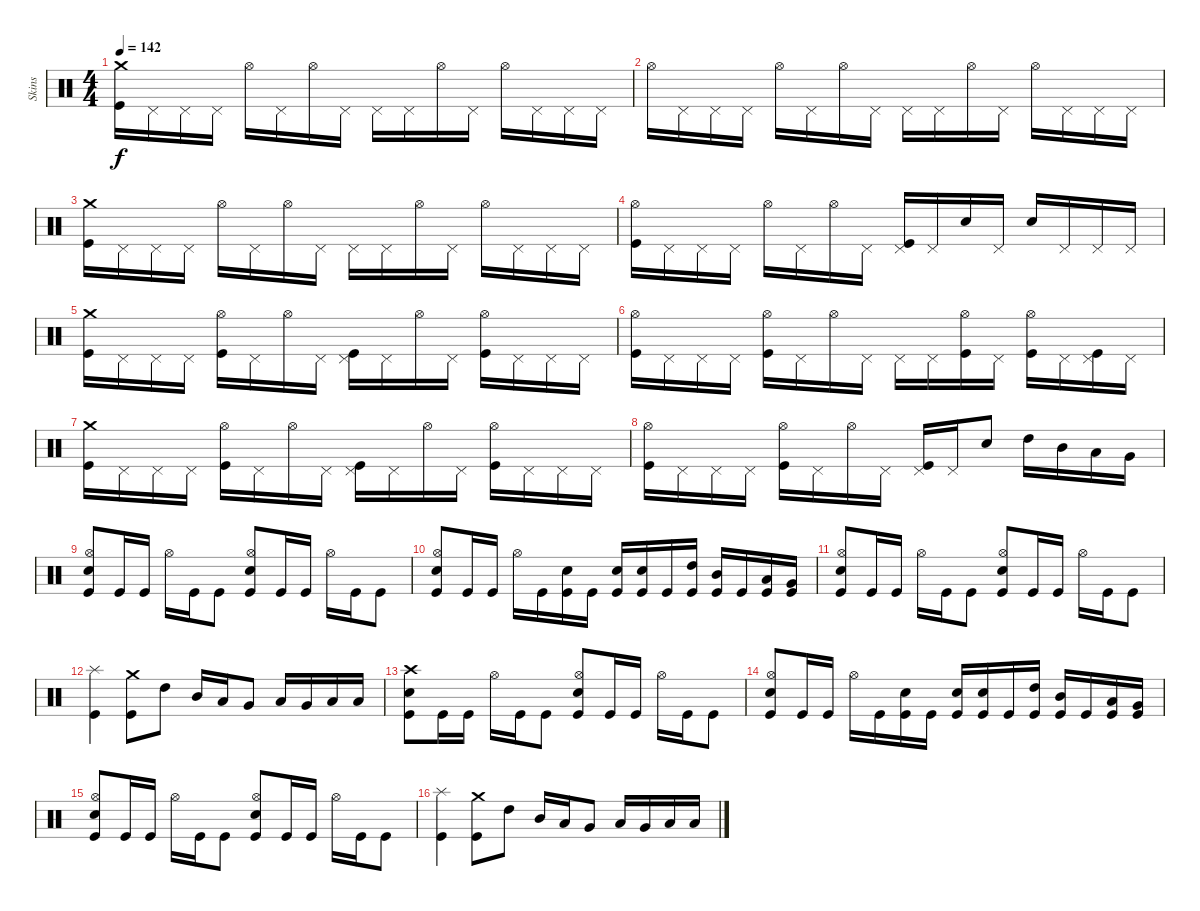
\track ("Skins" "Skins") {instrument percussion}
\staff {score}
\articulation defaults
\ts (4 4)
\tempo 142
\clef neutral
\ks c
("Crash medium (hit)" "Kick (hit)").16{dy f} "Pedal Hi-Hat (hit)".16 "Pedal Hi-Hat (hit)".16 "Pedal Hi-Hat (hit)".16 "Hi-Hat (open)".16 "Pedal Hi-Hat (hit)".16 "Hi-Hat (open)".16 "Pedal Hi-Hat (hit)".16 "Pedal Hi-Hat (hit)".16 "Pedal Hi-Hat (hit)".16 "Hi-Hat (open)".16 "Pedal Hi-Hat (hit)".16 "Hi-Hat (open)".16 "Pedal Hi-Hat (hit)".16 "Pedal Hi-Hat (hit)".16 "Pedal Hi-Hat (hit)".16 |
"Hi-Hat (open)".16 "Pedal Hi-Hat (hit)".16 "Pedal Hi-Hat (hit)".16 "Pedal Hi-Hat (hit)".16 "Hi-Hat (open)".16 "Pedal Hi-Hat (hit)".16 "Hi-Hat (open)".16 "Pedal Hi-Hat (hit)".16 "Pedal Hi-Hat (hit)".16 "Pedal Hi-Hat (hit)".16 "Hi-Hat (open)".16 "Pedal Hi-Hat (hit)".16 "Hi-Hat (open)".16 "Pedal Hi-Hat (hit)".16 "Pedal Hi-Hat (hit)".16 "Pedal Hi-Hat (hit)".16 |
("Crash medium (hit)" "Kick (hit)").16 "Pedal Hi-Hat (hit)".16 "Pedal Hi-Hat (hit)".16 "Pedal Hi-Hat (hit)".16 "Hi-Hat (open)".16 "Pedal Hi-Hat (hit)".16 "Hi-Hat (open)".16 "Pedal Hi-Hat (hit)".16 "Pedal Hi-Hat (hit)".16 "Pedal Hi-Hat (hit)".16 "Hi-Hat (open)".16 "Pedal Hi-Hat (hit)".16 "Hi-Hat (open)".16 "Pedal Hi-Hat (hit)".16 "Pedal Hi-Hat (hit)".16 "Pedal Hi-Hat (hit)".16 |
("Hi-Hat (open)" "Kick (hit)").16 "Pedal Hi-Hat (hit)".16 "Pedal Hi-Hat (hit)".16 "Pedal Hi-Hat (hit)".16 "Hi-Hat (open)".16 "Pedal Hi-Hat (hit)".16 "Hi-Hat (open)".16 "Pedal Hi-Hat (hit)".16 ("Pedal Hi-Hat (hit)" "Kick (hit)").16 "Pedal Hi-Hat (hit)".16 "Snare (hit) 2".16 "Pedal Hi-Hat (hit)".16 "Snare (hit) 2".16 "Pedal Hi-Hat (hit)".16 "Pedal Hi-Hat (hit)".16 "Pedal Hi-Hat (hit)".16 |
("Crash medium (hit)" "Kick (hit)").16 "Pedal Hi-Hat (hit)".16 "Pedal Hi-Hat (hit)".16 "Pedal Hi-Hat (hit)".16 ("Hi-Hat (open)" "Kick (hit)").16 "Pedal Hi-Hat (hit)".16 "Hi-Hat (open)".16 "Pedal Hi-Hat (hit)".16 ("Pedal Hi-Hat (hit)" "Kick (hit)").16 "Pedal Hi-Hat (hit)".16 "Hi-Hat (open)".16 "Pedal Hi-Hat (hit)".16 ("Hi-Hat (open)" "Kick (hit)").16 "Pedal Hi-Hat (hit)".16 "Pedal Hi-Hat (hit)".16 "Pedal Hi-Hat (hit)".16 |
("Hi-Hat (open)" "Kick (hit)").16 "Pedal Hi-Hat (hit)".16 "Pedal Hi-Hat (hit)".16 "Pedal Hi-Hat (hit)".16 ("Hi-Hat (open)" "Kick (hit)").16 "Pedal Hi-Hat (hit)".16 "Hi-Hat (open)".16 "Pedal Hi-Hat (hit)".16 "Pedal Hi-Hat (hit)".16 "Pedal Hi-Hat (hit)".16 ("Hi-Hat (open)" "Kick (hit)").16 "Pedal Hi-Hat (hit)".16 ("Hi-Hat (open)" "Kick (hit)").16 "Pedal Hi-Hat (hit)".16 ("Pedal Hi-Hat (hit)" "Kick (hit)").16 "Pedal Hi-Hat (hit)".16 |
("Crash medium (hit)" "Kick (hit)").16 "Pedal Hi-Hat (hit)".16 "Pedal Hi-Hat (hit)".16 "Pedal Hi-Hat (hit)".16 ("Hi-Hat (open)" "Kick (hit)").16 "Pedal Hi-Hat (hit)".16 "Hi-Hat (open)".16 "Pedal Hi-Hat (hit)".16 ("Pedal Hi-Hat (hit)" "Kick (hit)").16 "Pedal Hi-Hat (hit)".16 "Hi-Hat (open)".16 "Pedal Hi-Hat (hit)".16 ("Hi-Hat (open)" "Kick (hit)").16 "Pedal Hi-Hat (hit)".16 "Pedal Hi-Hat (hit)".16 "Pedal Hi-Hat (hit)".16 |
("Hi-Hat (open)" "Kick (hit)").16 "Pedal Hi-Hat (hit)".16 "Pedal Hi-Hat (hit)".16 "Pedal Hi-Hat (hit)".16 ("Hi-Hat (open)" "Kick (hit)").16 "Pedal Hi-Hat (hit)".16 "Hi-Hat (open)".16 "Pedal Hi-Hat (hit)".16 ("Pedal Hi-Hat (hit)" "Kick (hit)").16 "Pedal Hi-Hat (hit)".16 "Snare (hit) 2".8 "High Tom (hit)".16 "Mid Tom (hit)".16 "Low Tom (hit)".16 "Very Low Tom (hit)".16 |
("Hi-Hat (open)" "Electric Snare (hit)" "Kick (hit)").8 "Kick (hit)".16 "Kick (hit)".16 "Hi-Hat (open)".16 "Kick (hit)".16 "Kick (hit)".8 ("Hi-Hat (open)" "Snare (hit) 2" "Kick (hit)").8 "Kick (hit)".16 "Kick (hit)".16 "Hi-Hat (open)".16 "Kick (hit)".16 "Kick (hit)".8 |
("Hi-Hat (open)" "Snare (hit) 2" "Kick (hit)").8 "Kick (hit)".16 "Kick (hit)".16 "Hi-Hat (open)".16 "Kick (hit)".16 ("Snare (hit) 2" "Kick (hit)").16 "Kick (hit)".16 ("Snare (hit) 2" "Kick (hit)").16 ("Snare (hit) 2" "Kick (hit)").16 "Kick (hit)".16 ("High Tom (hit)" "Kick (hit)").16 ("Mid Tom (hit)" "Kick (hit)").16 "Kick (hit)".16 ("Low Tom (hit)" "Kick (hit)").16 ("Very Low Tom (hit)" "Kick (hit)").16 |
("Hi-Hat (open)" "Snare (hit) 2" "Kick (hit)").8 "Kick (hit)".16 "Kick (hit)".16 "Hi-Hat (open)".16 "Kick (hit)".16 "Kick (hit)".8 ("Hi-Hat (open)" "Snare (hit) 2" "Kick (hit)").8 "Kick (hit)".16 "Kick (hit)".16 "Hi-Hat (open)".16 "Kick (hit)".16 "Kick (hit)".8 |
("Splash (hit)" "Kick (hit)").4 ("Crash medium (hit)" "Kick (hit)").8 "High Tom (hit)".8 "Mid Tom (hit)".16 "Low Tom (hit)".16 "Very Low Tom (hit)".8 "Low Tom (hit)".16 "Very Low Tom (hit)".16 "Low Floor Tom (hit)".16 "Low Floor Tom (hit)".16 |
("Crash high (hit)" "Electric Snare (hit)" "Kick (hit)").8 "Kick (hit)".16 "Kick (hit)".16 "Hi-Hat (open)".16 "Kick (hit)".16 "Kick (hit)".8 ("Hi-Hat (open)" "Snare (hit) 2" "Kick (hit)").8 "Kick (hit)".16 "Kick (hit)".16 "Hi-Hat (open)".16 "Kick (hit)".16 "Kick (hit)".8 |
("Hi-Hat (open)" "Snare (hit) 2" "Kick (hit)").8 "Kick (hit)".16 "Kick (hit)".16 "Hi-Hat (open)".16 "Kick (hit)".16 ("Snare (hit) 2" "Kick (hit)").16 "Kick (hit)".16 ("Snare (hit) 2" "Kick (hit)").16 ("Snare (hit) 2" "Kick (hit)").16 "Kick (hit)".16 ("High Tom (hit)" "Kick (hit)").16 ("Mid Tom (hit)" "Kick (hit)").16 "Kick (hit)".16 ("Low Tom (hit)" "Kick (hit)").16 ("Very Low Tom (hit)" "Kick (hit)").16 |
("Hi-Hat (open)" "Snare (hit) 2" "Kick (hit)").8 "Kick (hit)".16 "Kick (hit)".16 "Hi-Hat (open)".16 "Kick (hit)".16 "Kick (hit)".8 ("Hi-Hat (open)" "Snare (hit) 2" "Kick (hit)").8 "Kick (hit)".16 "Kick (hit)".16 "Hi-Hat (open)".16 "Kick (hit)".16 "Kick (hit)".8 |
("Splash (hit)" "Kick (hit)").4 ("Crash medium (hit)" "Kick (hit)").8 "High Tom (hit)".8 "Mid Tom (hit)".16 "Low Tom (hit)".16 "Very Low Tom (hit)".8 "Low Tom (hit)".16 "Very Low Tom (hit)".16 "Low Floor Tom (hit)".16 "Low Floor Tom (hit)".16
